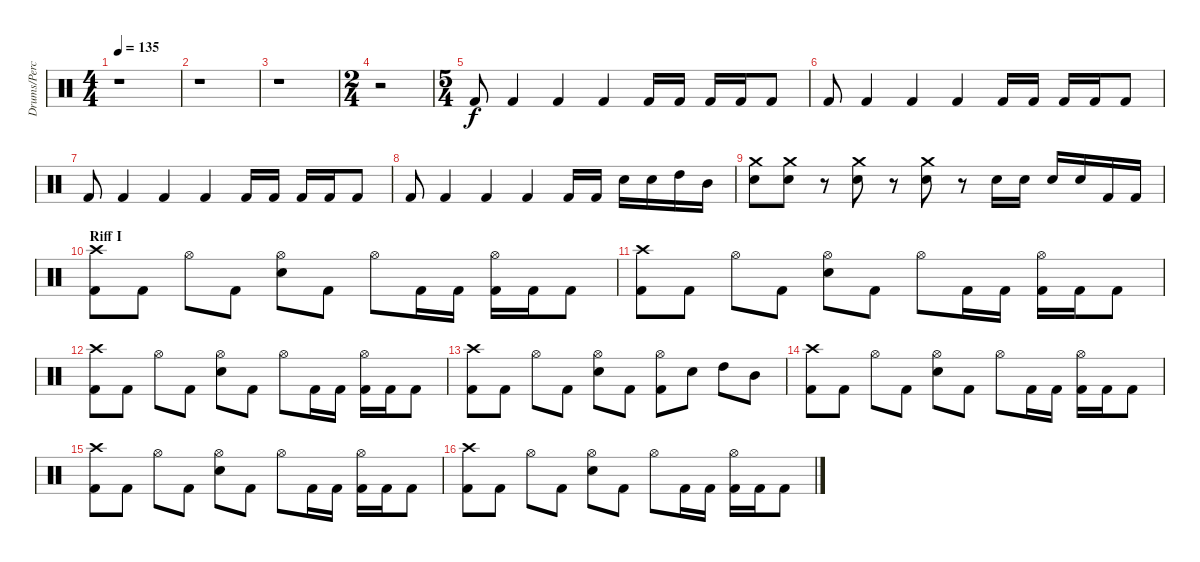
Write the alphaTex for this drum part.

\track ("Drums/Percussion" "Drums/Perc") {instrument percussion}
\staff {score}
\articulation defaults
\ts (4 4)
\tempo 135
\clef neutral
\ks c
r.1{dy f} |
r.1 |
r.1 |
\ts (2 4)
r.2{volume 0} |
\ts (5 4)
"Kick (hit) 2".8{volume 14} "Kick (hit) 2".4 "Kick (hit) 2".4 "Kick (hit) 2".4 "Kick (hit) 2".16 "Kick (hit) 2".16 "Kick (hit) 2".16 "Kick (hit) 2".16 "Kick (hit) 2".8 |
"Kick (hit) 2".8 "Kick (hit) 2".4 "Kick (hit) 2".4 "Kick (hit) 2".4 "Kick (hit) 2".16 "Kick (hit) 2".16 "Kick (hit) 2".16 "Kick (hit) 2".16 "Kick (hit) 2".8 |
"Kick (hit) 2".8 "Kick (hit) 2".4 "Kick (hit) 2".4 "Kick (hit) 2".4 "Kick (hit) 2".16 "Kick (hit) 2".16 "Kick (hit) 2".16 "Kick (hit) 2".16 "Kick (hit) 2".8 |
"Kick (hit) 2".8 "Kick (hit) 2".4 "Kick (hit) 2".4 "Kick (hit) 2".4 "Kick (hit) 2".16 "Kick (hit) 2".16 "Snare (hit) 2".16 "Snare (hit) 2".16 "High Tom (hit)".16 "Mid Tom (hit)".16 |
("Crash medium (hit)" "Snare (hit) 2").8 ("Crash medium (hit)" "Snare (hit) 2").8 r.8 ("Crash medium (hit)" "Snare (hit) 2").8 r.8 ("Crash medium (hit)" "Snare (hit) 2").8 r.8 "Snare (hit) 2".16 "Snare (hit) 2".16 "Snare (hit) 2".16 "Snare (hit) 2".16 "Kick (hit) 2".16 "Kick (hit) 2".16 |
\section ("" "Riff I")
("Crash high (hit)" "Kick (hit) 2").8 "Kick (hit) 2".8 "Hi-Hat (open)".8 "Kick (hit) 2".8 ("Hi-Hat (open)" "Snare (hit) 2").8 "Kick (hit) 2".8 "Hi-Hat (open)".8 "Kick (hit) 2".16 "Kick (hit) 2".16 ("Hi-Hat (open)" "Kick (hit) 2").16 "Kick (hit) 2".16 "Kick (hit) 2".8 |
("Crash high (hit)" "Kick (hit) 2").8 "Kick (hit) 2".8 "Hi-Hat (open)".8 "Kick (hit) 2".8 ("Hi-Hat (open)" "Snare (hit) 2").8 "Kick (hit) 2".8 "Hi-Hat (open)".8 "Kick (hit) 2".16 "Kick (hit) 2".16 ("Hi-Hat (open)" "Kick (hit) 2").16 "Kick (hit) 2".16 "Kick (hit) 2".8 |
("Crash high (hit)" "Kick (hit) 2").8 "Kick (hit) 2".8 "Hi-Hat (open)".8 "Kick (hit) 2".8 ("Hi-Hat (open)" "Snare (hit) 2").8 "Kick (hit) 2".8 "Hi-Hat (open)".8 "Kick (hit) 2".16 "Kick (hit) 2".16 ("Hi-Hat (open)" "Kick (hit) 2").16 "Kick (hit) 2".16 "Kick (hit) 2".8 |
("Crash high (hit)" "Kick (hit) 2").8 "Kick (hit) 2".8 "Hi-Hat (open)".8 "Kick (hit) 2".8 ("Hi-Hat (open)" "Snare (hit) 2").8 "Kick (hit) 2".8 ("Hi-Hat (open)" "Kick (hit) 2").8 "Snare (hit) 2".8 "High Tom (hit)".8 "Mid Tom (hit)".8 |
("Crash high (hit)" "Kick (hit) 2").8 "Kick (hit) 2".8 "Hi-Hat (open)".8 "Kick (hit) 2".8 ("Hi-Hat (open)" "Snare (hit) 2").8 "Kick (hit) 2".8 "Hi-Hat (open)".8 "Kick (hit) 2".16 "Kick (hit) 2".16 ("Hi-Hat (open)" "Kick (hit) 2").16 "Kick (hit) 2".16 "Kick (hit) 2".8 |
("Crash high (hit)" "Kick (hit) 2").8 "Kick (hit) 2".8 "Hi-Hat (open)".8 "Kick (hit) 2".8 ("Hi-Hat (open)" "Snare (hit) 2").8 "Kick (hit) 2".8 "Hi-Hat (open)".8 "Kick (hit) 2".16 "Kick (hit) 2".16 ("Hi-Hat (open)" "Kick (hit) 2").16 "Kick (hit) 2".16 "Kick (hit) 2".8 |
("Crash high (hit)" "Kick (hit) 2").8 "Kick (hit) 2".8 "Hi-Hat (open)".8 "Kick (hit) 2".8 ("Hi-Hat (open)" "Snare (hit) 2").8 "Kick (hit) 2".8 "Hi-Hat (open)".8 "Kick (hit) 2".16 "Kick (hit) 2".16 ("Hi-Hat (open)" "Kick (hit) 2").16 "Kick (hit) 2".16 "Kick (hit) 2".8
